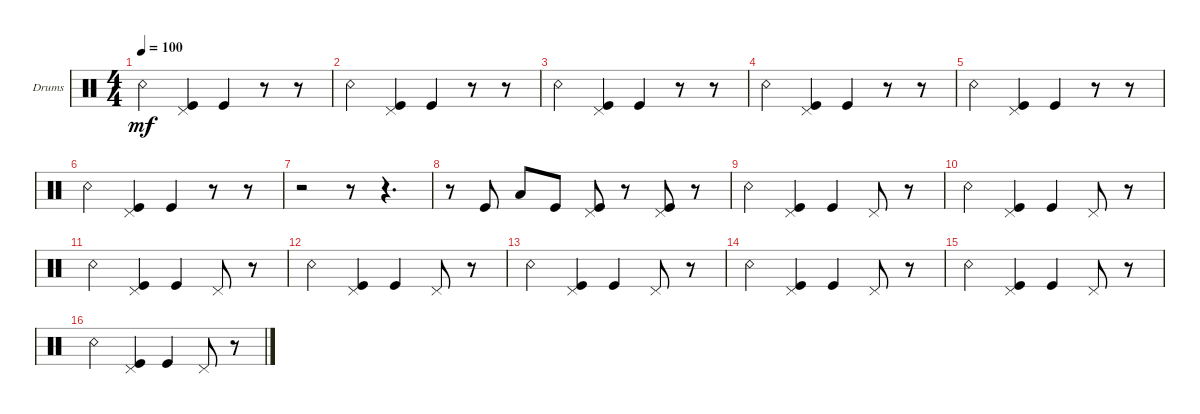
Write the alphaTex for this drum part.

\defaultSystemsLayout 4
\bracketExtendMode groupsimilarinstruments
\firstSystemTrackNameOrientation horizontal
\otherSystemsTrackNameOrientation horizontal
\track ("Drumkit" "Drums") {instrument percussion}
\staff {score}
\articulation defaults
\ts (4 4)
\tempo 100
\clef neutral
\ks c "Snare (rim shot)".4{dy mf}
("Kick (hit)" "Pedal Hi-Hat (hit)").4 "Kick (hit)".4 r.8 r.8 |
"Snare (rim shot)".4 ("Kick (hit)" "Pedal Hi-Hat (hit)").4 "Kick (hit)".4 r.8 r.8 |
"Snare (rim shot)".4 ("Kick (hit)" "Pedal Hi-Hat (hit)").4 "Kick (hit)".4 r.8 r.8 |
"Snare (rim shot)".4 ("Kick (hit)" "Pedal Hi-Hat (hit)").4 "Kick (hit)".4 r.8 r.8 |
"Snare (rim shot)".4 ("Kick (hit)" "Pedal Hi-Hat (hit)").4 "Kick (hit)".4 r.8 r.8 |
"Snare (rim shot)".4 ("Kick (hit)" "Pedal Hi-Hat (hit)").4 "Kick (hit)".4 r.8 r.8 |
r.2 r.8 r.4{d} |
r.8 "Kick (hit)".8 "Low Tom (hit)".8 "Kick (hit)".8 ("Pedal Hi-Hat (hit)" "Kick (hit)").8 r.8 ("Pedal Hi-Hat (hit)" "Kick (hit)").8 r.8 |
"Snare (rim shot)".4 ("Kick (hit)" "Pedal Hi-Hat (hit)").4 "Kick (hit)".4 "Pedal Hi-Hat (hit)".8 r.8 |
"Snare (rim shot)".4 ("Kick (hit)" "Pedal Hi-Hat (hit)").4 "Kick (hit)".4 "Pedal Hi-Hat (hit)".8 r.8 |
"Snare (rim shot)".4 ("Kick (hit)" "Pedal Hi-Hat (hit)").4 "Kick (hit)".4 "Pedal Hi-Hat (hit)".8 r.8 |
"Snare (rim shot)".4 ("Kick (hit)" "Pedal Hi-Hat (hit)").4 "Kick (hit)".4 "Pedal Hi-Hat (hit)".8 r.8 |
"Snare (rim shot)".4 ("Kick (hit)" "Pedal Hi-Hat (hit)").4 "Kick (hit)".4 "Pedal Hi-Hat (hit)".8 r.8 |
"Snare (rim shot)".4 ("Kick (hit)" "Pedal Hi-Hat (hit)").4 "Kick (hit)".4 "Pedal Hi-Hat (hit)".8 r.8 |
"Snare (rim shot)".4 ("Kick (hit)" "Pedal Hi-Hat (hit)").4 "Kick (hit)".4 "Pedal Hi-Hat (hit)".8 r.8 |
"Snare (rim shot)".4 ("Kick (hit)" "Pedal Hi-Hat (hit)").4 "Kick (hit)".4 "Pedal Hi-Hat (hit)".8 r.8
